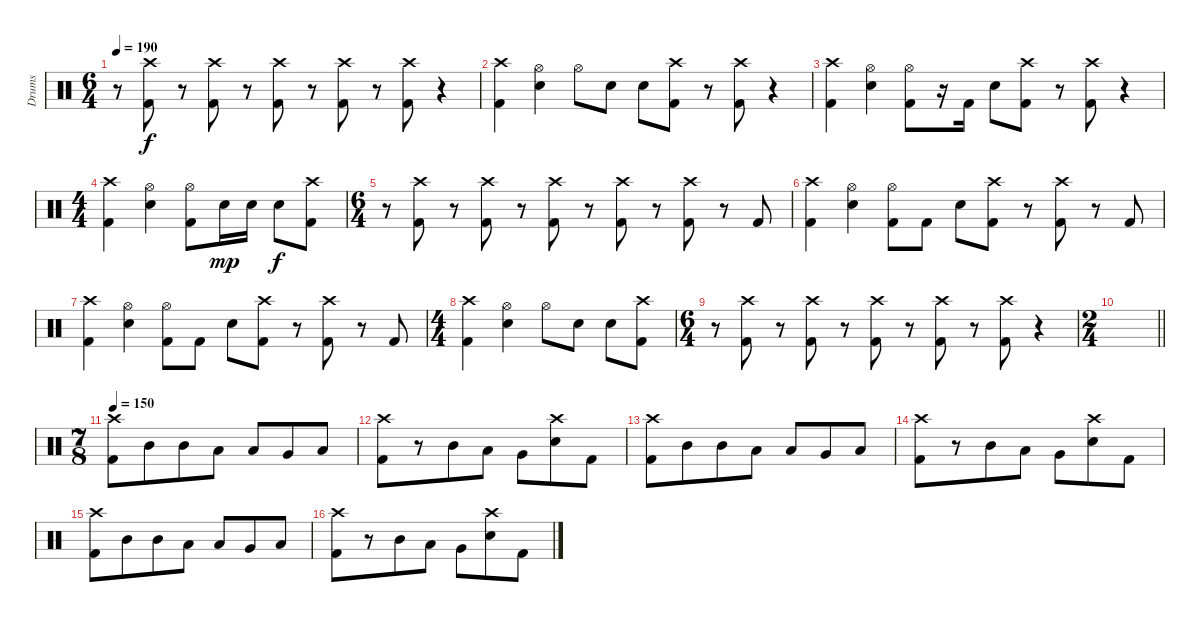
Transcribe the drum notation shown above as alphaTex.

\track ("Drums" "Drums") {instrument percussion}
\staff {score}
\articulation defaults
\ts (6 4)
\tempo 190
\clef neutral
\ks c
r.8{dy f} ("Crash high (hit)" "Kick (hit) 2").8 r.8 ("Crash high (hit)" "Kick (hit) 2").8 r.8 ("Crash high (hit)" "Kick (hit) 2").8 r.8 ("Crash high (hit)" "Kick (hit) 2").8 r.8 ("Crash high (hit)" "Kick (hit) 2").8 r.4 |
("Crash high (hit)" "Kick (hit) 2").4 ("Hi-Hat (open)" "Snare (hit) 2").4 "Hi-Hat (open)".8 "Snare (hit) 2".8 "Snare (hit) 2".8 ("Crash high (hit)" "Kick (hit) 2").8 r.8 ("Crash high (hit)" "Kick (hit) 2").8 r.4 |
("Crash high (hit)" "Kick (hit) 2").4 ("Hi-Hat (open)" "Snare (hit) 2").4 ("Hi-Hat (open)" "Kick (hit) 2").8 r.16 "Kick (hit) 2".16 "Snare (hit) 2".8 ("Crash high (hit)" "Kick (hit) 2").8 r.8 ("Crash high (hit)" "Kick (hit) 2").8 r.4 |
\ts (4 4)
("Crash high (hit)" "Kick (hit) 2").4 ("Hi-Hat (open)" "Snare (hit) 2").4 ("Hi-Hat (open)" "Kick (hit) 2").8 "Snare (hit) 2".16{dy mp} "Snare (hit) 2".16 "Snare (hit) 2".8{dy f} ("Crash high (hit)" "Kick (hit) 2").8 |
\ts (6 4)
r.8 ("Crash high (hit)" "Kick (hit) 2").8 r.8 ("Crash high (hit)" "Kick (hit) 2").8 r.8 ("Crash high (hit)" "Kick (hit) 2").8 r.8 ("Crash high (hit)" "Kick (hit) 2").8 r.8 ("Crash high (hit)" "Kick (hit) 2").8 r.8 "Kick (hit) 2".8 |
("Crash high (hit)" "Kick (hit) 2").4 ("Hi-Hat (open)" "Snare (hit) 2").4 ("Hi-Hat (open)" "Kick (hit) 2").8 "Kick (hit) 2".8 "Snare (hit) 2".8 ("Crash high (hit)" "Kick (hit) 2").8 r.8 ("Crash high (hit)" "Kick (hit) 2").8 r.8 "Kick (hit) 2".8 |
("Crash high (hit)" "Kick (hit) 2").4 ("Hi-Hat (open)" "Snare (hit) 2").4 ("Hi-Hat (open)" "Kick (hit) 2").8 "Kick (hit) 2".8 "Snare (hit) 2".8 ("Crash high (hit)" "Kick (hit) 2").8 r.8 ("Crash high (hit)" "Kick (hit) 2").8 r.8 "Kick (hit) 2".8 |
\ts (4 4)
("Crash high (hit)" "Kick (hit) 2").4 ("Hi-Hat (open)" "Snare (hit) 2").4 "Hi-Hat (open)".8 "Snare (hit) 2".8 "Snare (hit) 2".8 ("Crash high (hit)" "Kick (hit) 2").8 |
\ts (6 4)
r.8 ("Crash high (hit)" "Kick (hit) 2").8 r.8 ("Crash high (hit)" "Kick (hit) 2").8 r.8 ("Crash high (hit)" "Kick (hit) 2").8 r.8 ("Crash high (hit)" "Kick (hit) 2").8 r.8 ("Crash high (hit)" "Kick (hit) 2").8 r.4 |
\ts (2 4)
\barLineRight lightlight
|
\ts (7 8)
\tempo 150
("Crash high (hit)" "Kick (hit) 2").8 "Mid Tom (hit)".8 "Mid Tom (hit)".8 "Low Tom (hit)".8 "Low Tom (hit)".8 "Very Low Tom (hit)".8 "Low Floor Tom (hit)".8 |
("Crash high (hit)" "Kick (hit) 2").8 r.8 "Mid Tom (hit)".8 "Low Tom (hit)".8 "Very Low Tom (hit)".8 ("Crash high (hit)" "Snare (hit) 2").8 "Kick (hit) 2".8 |
("Crash high (hit)" "Kick (hit) 2").8 "Mid Tom (hit)".8 "Mid Tom (hit)".8 "Low Tom (hit)".8 "Low Tom (hit)".8 "Very Low Tom (hit)".8 "Low Floor Tom (hit)".8 |
("Crash high (hit)" "Kick (hit) 2").8 r.8 "Mid Tom (hit)".8 "Low Tom (hit)".8 "Very Low Tom (hit)".8 ("Crash high (hit)" "Snare (hit) 2").8 "Kick (hit) 2".8 |
("Crash high (hit)" "Kick (hit) 2").8 "Mid Tom (hit)".8 "Mid Tom (hit)".8 "Low Tom (hit)".8 "Low Tom (hit)".8 "Very Low Tom (hit)".8 "Low Floor Tom (hit)".8 |
("Crash high (hit)" "Kick (hit) 2").8 r.8 "Mid Tom (hit)".8 "Low Tom (hit)".8 "Very Low Tom (hit)".8 ("Crash high (hit)" "Snare (hit) 2").8 "Kick (hit) 2".8
